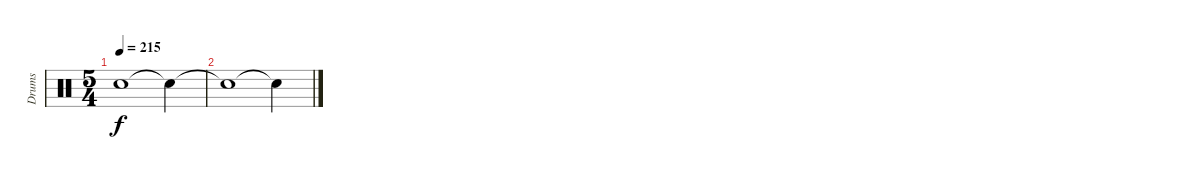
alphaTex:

\track ("Drums" "Drums") {instrument percussion}
\staff {score}
\articulation defaults
\ts (5 4)
\tempo 215
\clef neutral
\ks c "Snare (hit)"{t}.1{dy f volume 0} "Snare (hit)"{t}.4
|
"Snare (hit)"{t}.1 "Snare (hit)"{t}.4
